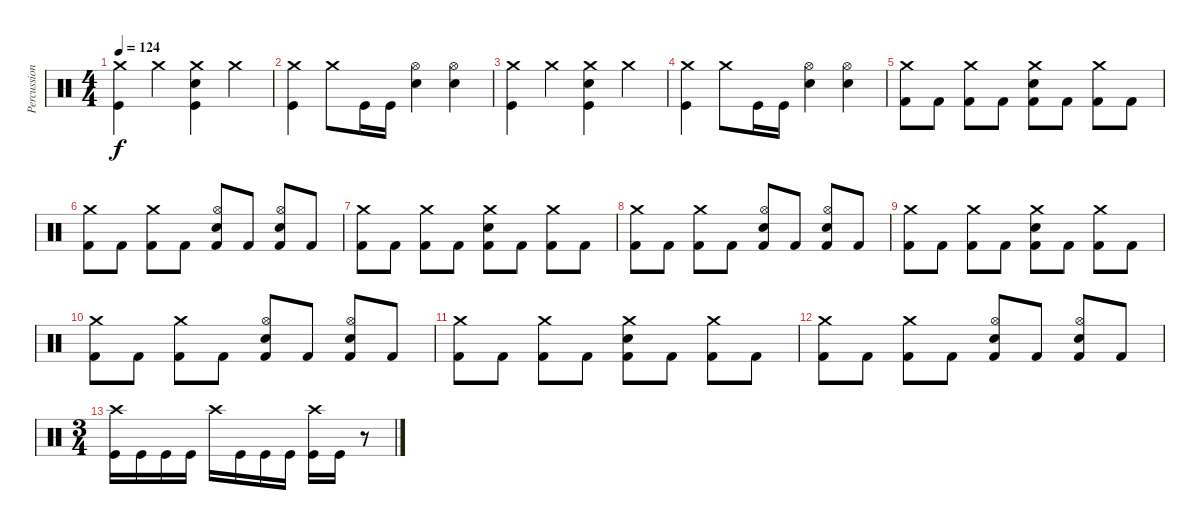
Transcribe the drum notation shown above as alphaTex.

\track ("Percussion" "Percussion") {instrument percussion}
\staff {score}
\articulation defaults
\ts (4 4)
\tempo 124
\clef neutral
\ks c
("Crash medium (hit)" "Kick (hit)").4{dy f} "Crash medium (hit)".4 ("Kick (hit)" "Crash medium (hit)" "Electric Snare (hit)").4 "Crash medium (hit)".4 |
("Crash medium (hit)" "Kick (hit)").4 "Crash medium (hit)".8 "Kick (hit)".16 "Kick (hit)".16 ("Hi-Hat (open)" "Electric Snare (hit)").4 ("Hi-Hat (open)" "Electric Snare (hit)").4 |
("Crash medium (hit)" "Kick (hit)").4 "Crash medium (hit)".4 ("Kick (hit)" "Crash medium (hit)" "Electric Snare (hit)").4 "Crash medium (hit)".4 |
("Crash medium (hit)" "Kick (hit)").4 "Crash medium (hit)".8 "Kick (hit)".16 "Kick (hit)".16 ("Hi-Hat (open)" "Electric Snare (hit)").4 ("Hi-Hat (open)" "Electric Snare (hit)").4 |
("Crash medium (hit)" "Kick (hit) 2").8 "Kick (hit) 2".8 ("Crash medium (hit)" "Kick (hit) 2").8 "Kick (hit) 2".8 ("Crash medium (hit)" "Electric Snare (hit)" "Kick (hit) 2").8 "Kick (hit) 2".8 ("Crash medium (hit)" "Kick (hit) 2").8 "Kick (hit) 2".8 |
("Crash medium (hit)" "Kick (hit) 2").8 "Kick (hit) 2".8 ("Crash medium (hit)" "Kick (hit) 2").8 "Kick (hit) 2".8 ("Hi-Hat (open)" "Electric Snare (hit)" "Kick (hit) 2").8 "Kick (hit) 2".8 ("Hi-Hat (open)" "Electric Snare (hit)" "Kick (hit) 2").8 "Kick (hit) 2".8 |
("Crash medium (hit)" "Kick (hit) 2").8 "Kick (hit) 2".8 ("Crash medium (hit)" "Kick (hit) 2").8 "Kick (hit) 2".8 ("Crash medium (hit)" "Electric Snare (hit)" "Kick (hit) 2").8 "Kick (hit) 2".8 ("Crash medium (hit)" "Kick (hit) 2").8 "Kick (hit) 2".8 |
("Crash medium (hit)" "Kick (hit) 2").8 "Kick (hit) 2".8 ("Crash medium (hit)" "Kick (hit) 2").8 "Kick (hit) 2".8 ("Hi-Hat (open)" "Electric Snare (hit)" "Kick (hit) 2").8 "Kick (hit) 2".8 ("Hi-Hat (open)" "Electric Snare (hit)" "Kick (hit) 2").8 "Kick (hit) 2".8 |
("Crash medium (hit)" "Kick (hit) 2").8 "Kick (hit) 2".8 ("Crash medium (hit)" "Kick (hit) 2").8 "Kick (hit) 2".8 ("Crash medium (hit)" "Electric Snare (hit)" "Kick (hit) 2").8 "Kick (hit) 2".8 ("Crash medium (hit)" "Kick (hit) 2").8 "Kick (hit) 2".8 |
("Crash medium (hit)" "Kick (hit) 2").8 "Kick (hit) 2".8 ("Crash medium (hit)" "Kick (hit) 2").8 "Kick (hit) 2".8 ("Hi-Hat (open)" "Electric Snare (hit)" "Kick (hit) 2").8 "Kick (hit) 2".8 ("Hi-Hat (open)" "Electric Snare (hit)" "Kick (hit) 2").8 "Kick (hit) 2".8 |
("Crash medium (hit)" "Kick (hit) 2").8 "Kick (hit) 2".8 ("Crash medium (hit)" "Kick (hit) 2").8 "Kick (hit) 2".8 ("Crash medium (hit)" "Electric Snare (hit)" "Kick (hit) 2").8 "Kick (hit) 2".8 ("Crash medium (hit)" "Kick (hit) 2").8 "Kick (hit) 2".8 |
("Crash medium (hit)" "Kick (hit) 2").8 "Kick (hit) 2".8 ("Crash medium (hit)" "Kick (hit) 2").8 "Kick (hit) 2".8 ("Hi-Hat (open)" "Electric Snare (hit)" "Kick (hit) 2").8 "Kick (hit) 2".8 ("Hi-Hat (open)" "Electric Snare (hit)" "Kick (hit) 2").8 "Kick (hit) 2".8 |
\ts (3 4)
("Crash high (hit)" "Kick (hit)").16 "Kick (hit)".16 "Kick (hit)".16 "Kick (hit)".16 "Crash high (hit)".16 "Kick (hit)".16 "Kick (hit)".16 "Kick (hit)".16 ("Crash high (hit)" "Kick (hit)").16 "Kick (hit)".16 r.8
